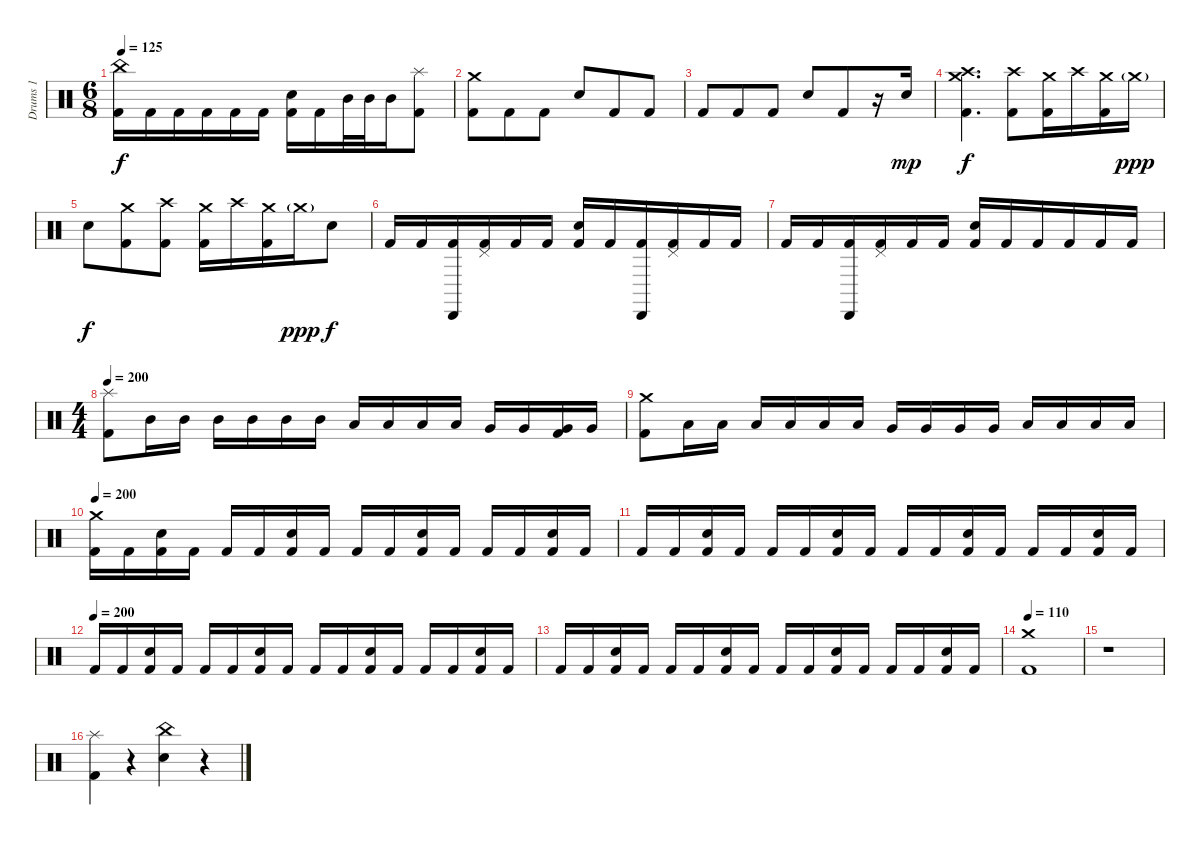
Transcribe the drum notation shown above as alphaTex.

\track ("Drums 1" "Drums 1") {instrument percussion}
\staff {score}
\articulation defaults
\ts (6 8)
\tempo 125
\clef neutral
\ks c
("China (hit)" "Kick (hit) 2").16{dy f} "Kick (hit) 2".16 "Kick (hit) 2".16 "Kick (hit) 2".16 "Kick (hit) 2".16 "Kick (hit) 2".16 ("Snare (hit) 2" "Kick (hit) 2").16 "Kick (hit) 2".16 "Mid Tom (hit)".32 "Mid Tom (hit)".32 "Mid Tom (hit)".16 ("Splash (hit)" "Kick (hit) 2").8 |
("Crash medium (hit)" "Kick (hit) 2").8 "Kick (hit) 2".8 "Kick (hit) 2".8 "Snare (hit) 2".8 "Kick (hit) 2".8 "Kick (hit) 2".8 |
"Kick (hit) 2".8 "Kick (hit) 2".8 "Kick (hit) 2".8 "Snare (hit) 2".8 "Kick (hit) 2".8 r.16 "Snare (hit) 2".16{dy mp} |
("Crash medium (hit)" "Crash high (hit)" "Kick (hit) 2").4{d dy f} ("Crash high (hit)" "Kick (hit) 2").8 ("Crash medium (hit)" "Kick (hit) 2").16 "Crash high (hit)".16 ("Crash medium (hit)" "Kick (hit) 2").16 "Crash medium (hit)"{g}.16{dy ppp} |
"Snare (hit) 2".8{dy f} ("Crash medium (hit)" "Kick (hit) 2").8 ("Crash high (hit)" "Kick (hit) 2").8 ("Crash medium (hit)" "Kick (hit) 2").16 "Crash high (hit)".16 ("Crash medium (hit)" "Kick (hit) 2").16 "Crash medium (hit)"{g}.16{dy ppp} "Snare (hit) 2".8{dy f} |
"Kick (hit) 2".16 "Kick (hit) 2".16 ("Cabasa (hit)" "Kick (hit) 2").16 ("Pedal Hi-Hat (hit)" "Kick (hit) 2").16 "Kick (hit) 2".16 "Kick (hit) 2".16 ("Snare (hit) 2" "Kick (hit) 2").16 "Kick (hit) 2".16 ("Cabasa (hit)" "Kick (hit) 2").16 ("Pedal Hi-Hat (hit)" "Kick (hit) 2").16 "Kick (hit) 2".16 "Kick (hit) 2".16 |
"Kick (hit) 2".16 "Kick (hit) 2".16 ("Cabasa (hit)" "Kick (hit) 2").16 ("Pedal Hi-Hat (hit)" "Kick (hit) 2").16 "Kick (hit) 2".16 "Kick (hit) 2".16 ("Snare (hit) 2" "Kick (hit) 2").16 "Kick (hit) 2".16 "Kick (hit) 2".16 "Kick (hit) 2".16 "Kick (hit) 2".16 "Kick (hit) 2".16 |
\ts (4 4)
\tempo 200
("Splash (hit)" "Kick (hit) 2").8 "Mid Tom (hit)".16 "Mid Tom (hit)".16 "Mid Tom (hit)".16 "Mid Tom (hit)".16 "Mid Tom (hit)".16 "Mid Tom (hit)".16 "Low Tom (hit)".16 "Low Tom (hit)".16 "Low Tom (hit)".16 "Low Tom (hit)".16 "Very Low Tom (hit)".16 "Very Low Tom (hit)".16 ("Very Low Tom (hit)" "Kick (hit) 2").16 "Very Low Tom (hit)".16 |
("Crash medium (hit)" "Kick (hit) 2").8 "Low Tom (hit)".16 "Low Tom (hit)".16 "Low Tom (hit)".16 "Low Tom (hit)".16 "Low Tom (hit)".16 "Low Tom (hit)".16 "Very Low Tom (hit)".16 "Very Low Tom (hit)".16 "Very Low Tom (hit)".16 "Very Low Tom (hit)".16 "Low Floor Tom (hit)".16 "Low Floor Tom (hit)".16 "Low Floor Tom (hit)".16 "Low Floor Tom (hit)".16 |
\tempo 200
("Crash medium (hit)" "Kick (hit) 2").16 "Kick (hit) 2".16 ("Snare (hit) 2" "Kick (hit) 2").16 "Kick (hit) 2".16 "Kick (hit) 2".16 "Kick (hit) 2".16 ("Snare (hit) 2" "Kick (hit) 2").16 "Kick (hit) 2".16 "Kick (hit) 2".16 "Kick (hit) 2".16 ("Snare (hit) 2" "Kick (hit) 2").16 "Kick (hit) 2".16 "Kick (hit) 2".16 "Kick (hit) 2".16 ("Snare (hit) 2" "Kick (hit) 2").16 "Kick (hit) 2".16 |
"Kick (hit) 2".16 "Kick (hit) 2".16 ("Snare (hit) 2" "Kick (hit) 2").16 "Kick (hit) 2".16 "Kick (hit) 2".16 "Kick (hit) 2".16 ("Snare (hit) 2" "Kick (hit) 2").16 "Kick (hit) 2".16 "Kick (hit) 2".16 "Kick (hit) 2".16 ("Snare (hit) 2" "Kick (hit) 2").16 "Kick (hit) 2".16 "Kick (hit) 2".16 "Kick (hit) 2".16 ("Snare (hit) 2" "Kick (hit) 2").16 "Kick (hit) 2".16 |
\tempo (200)
"Kick (hit) 2".16 "Kick (hit) 2".16 ("Snare (hit) 2" "Kick (hit) 2").16 "Kick (hit) 2".16 "Kick (hit) 2".16 "Kick (hit) 2".16 ("Snare (hit) 2" "Kick (hit) 2").16 "Kick (hit) 2".16 "Kick (hit) 2".16 "Kick (hit) 2".16 ("Snare (hit) 2" "Kick (hit) 2").16 "Kick (hit) 2".16 "Kick (hit) 2".16 "Kick (hit) 2".16 ("Snare (hit) 2" "Kick (hit) 2").16 "Kick (hit) 2".16 |
"Kick (hit) 2".16 "Kick (hit) 2".16 ("Snare (hit) 2" "Kick (hit) 2").16 "Kick (hit) 2".16 "Kick (hit) 2".16 "Kick (hit) 2".16 ("Snare (hit) 2" "Kick (hit) 2").16 "Kick (hit) 2".16 "Kick (hit) 2".16 "Kick (hit) 2".16 ("Snare (hit) 2" "Kick (hit) 2").16 "Kick (hit) 2".16 "Kick (hit) 2".16 "Kick (hit) 2".16 ("Snare (hit) 2" "Kick (hit) 2").16 "Kick (hit) 2".16 |
\tempo 95
\tempo 110
("Crash medium (hit)" "Kick (hit) 2").1 |
r.1 |
("Splash (hit)" "Kick (hit) 2").4 r.4 ("China (hit)" "Snare (hit) 2").4 r.4
